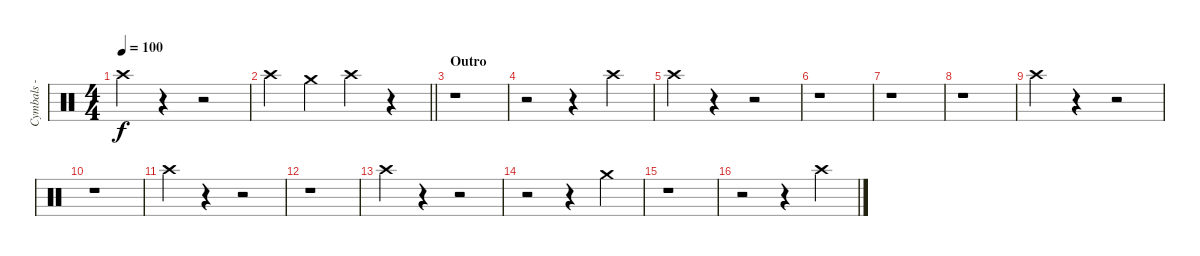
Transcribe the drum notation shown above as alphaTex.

\track ("Cymbals - crash - center" "Cymbals - ") {instrument percussion}
\staff {score}
\articulation defaults
\ts (4 4)
\tempo 100
\clef neutral
\ks c "Crash high (hit)".4{dy f}
r.4 r.2 |
\barLineRight lightlight "Crash high (hit)".4 "Crash medium (hit)".4 "Crash high (hit)".4
r.4 |
\section ("" "Outro")
r.1 |
r.2 r.4 "Crash high (hit)".4 |
"Crash high (hit)".4 r.4 r.2 |
r.1 |
r.1 |
r.1 |
"Crash high (hit)".4 r.4 r.2 |
r.1 |
"Crash high (hit)".4 r.4 r.2 |
r.1 |
"Crash high (hit)".4 r.4 r.2 |
r.2 r.4 "Crash medium (hit)".4 |
r.1 |
r.2 r.4 "Crash high (hit)".4
